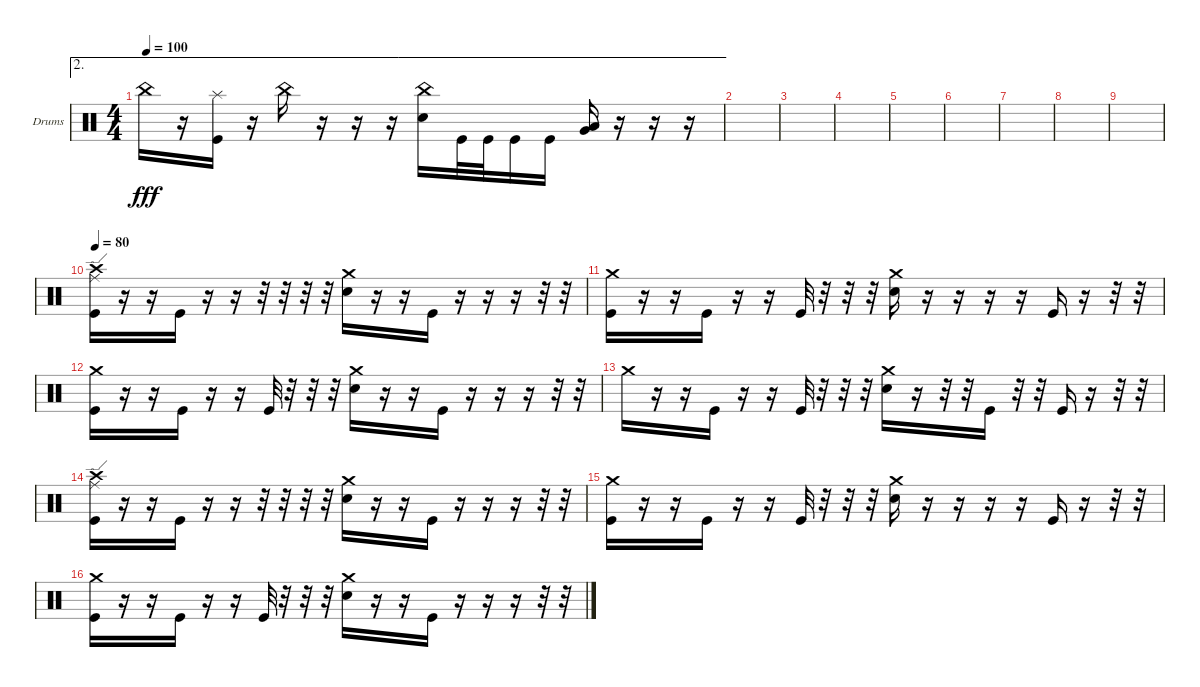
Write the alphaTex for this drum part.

\bracketExtendMode groupsimilarinstruments
\firstSystemTrackNameOrientation horizontal
\otherSystemsTrackNameOrientation horizontal
\track ("Drumkit" "Drums") {instrument percussion}
\staff {score}
\articulation defaults
\ae 2
\ts (4 4)
\tempo 100
\clef neutral
\ks c "China (hit)".16{dy fff}
r.16 ("Kick (hit)" "Splash (hit)").16 r.16 "China (hit)".16 r.16 r.16 r.16 ("Snare (hit) 2" "China (hit)").16 "Kick (hit)".32 "Kick (hit)".32 "Kick (hit)".16 "Kick (hit)".16 ("Very Low Tom (hit)" "Low Tom (hit)").16 r.16 r.16 r.16 |
|
|
|
|
|
|
|
|
\tempo 80
("Crash high (hit)" "Kick (hit)" "Ride (edge)").16 r.16 r.16 "Kick (hit)".16 r.16 r.16 r.32 r.32 r.32 r.32 ("Snare (hit) 2" "Crash medium (hit)").16 r.16 r.16 "Kick (hit)".16 r.16 r.16 r.16 r.32 r.32 |
("Kick (hit)" "Crash medium (hit)").16 r.16 r.16 "Kick (hit)".16 r.16 r.16 "Kick (hit)".32 r.32 r.32 r.32 ("Snare (hit) 2" "Crash medium (hit)").16 r.16 r.16 r.16 r.16 "Kick (hit)".16 r.16 r.32 r.32 |
("Kick (hit)" "Crash medium (hit)").16 r.16 r.16 "Kick (hit)".16 r.16 r.16 "Kick (hit)".32 r.32 r.32 r.32 ("Snare (hit) 2" "Crash medium (hit)").16 r.16 r.16 "Kick (hit)".16 r.16 r.16 r.16 r.32 r.32 |
"Crash medium (hit)".16 r.16 r.16 "Kick (hit)".16 r.16 r.16 "Kick (hit)".32 r.32 r.32 r.32 ("Snare (hit) 2" "Crash medium (hit)").16 r.16 r.32 r.32 "Kick (hit)".16 r.32 r.32 "Kick (hit)".16 r.16 r.32 r.32 |
("Crash high (hit)" "Kick (hit)" "Ride (edge)").16 r.16 r.16 "Kick (hit)".16 r.16 r.16 r.32 r.32 r.32 r.32 ("Snare (hit) 2" "Crash medium (hit)").16 r.16 r.16 "Kick (hit)".16 r.16 r.16 r.16 r.32 r.32 |
("Kick (hit)" "Crash medium (hit)").16 r.16 r.16 "Kick (hit)".16 r.16 r.16 "Kick (hit)".32 r.32 r.32 r.32 ("Snare (hit) 2" "Crash medium (hit)").16 r.16 r.16 r.16 r.16 "Kick (hit)".16 r.16 r.32 r.32 |
("Kick (hit)" "Crash medium (hit)").16 r.16 r.16 "Kick (hit)".16 r.16 r.16 "Kick (hit)".32 r.32 r.32 r.32 ("Snare (hit) 2" "Crash medium (hit)").16 r.16 r.16 "Kick (hit)".16 r.16 r.16 r.16 r.32 r.32
